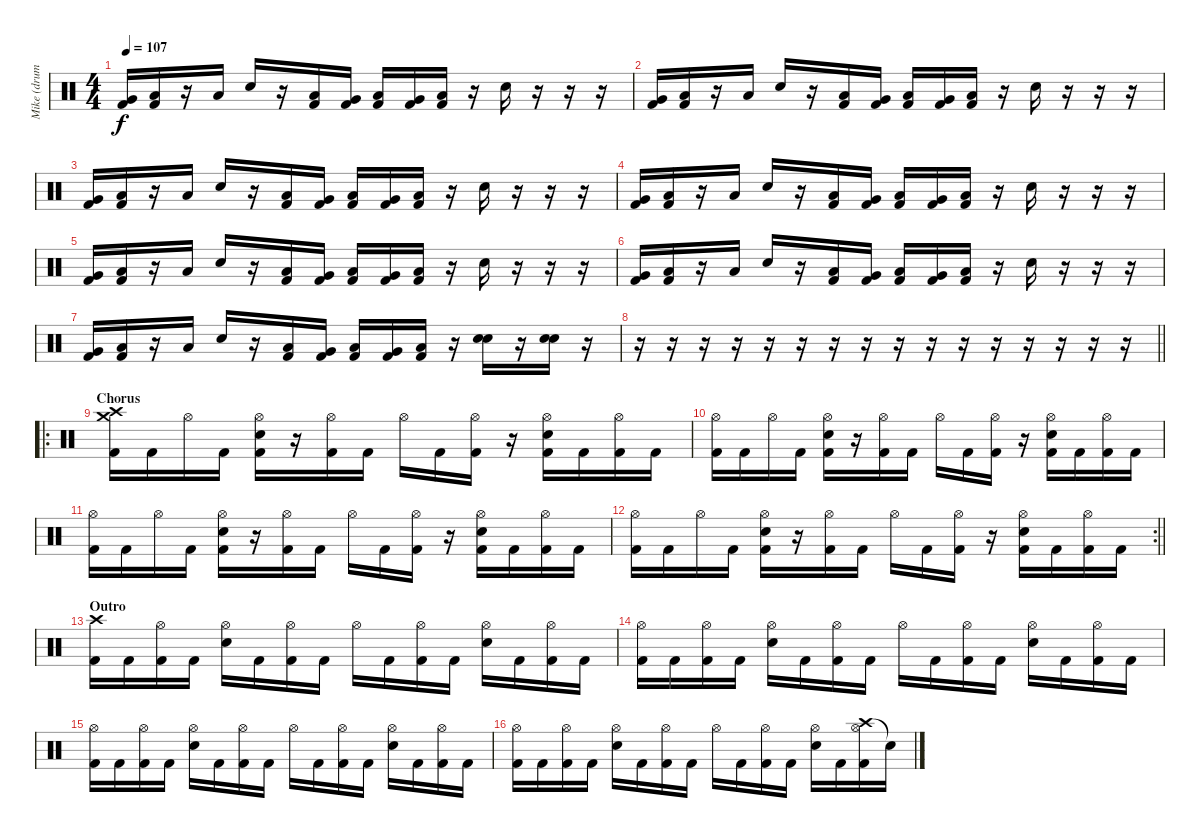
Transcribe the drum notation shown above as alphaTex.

\track ("Mike (drums)" "Mike (drum") {instrument percussion}
\staff {score}
\articulation defaults
\ts (4 4)
\tempo 107
\clef neutral
\ks c
("Very Low Tom (hit)" "Kick (hit) 2").16{dy f} ("Low Floor Tom (hit)" "Kick (hit) 2").16 r.16 "Low Floor Tom (hit)".16 "Electric Snare (hit)".16 r.16 ("Low Floor Tom (hit)" "Kick (hit) 2").16 ("Very Low Tom (hit)" "Kick (hit) 2").16 ("Low Floor Tom (hit)" "Kick (hit) 2").16 ("Very Low Tom (hit)" "Kick (hit) 2").16 ("Low Floor Tom (hit)" "Kick (hit) 2").16 r.16 "Electric Snare (hit)".16 r.16 r.16 r.16 |
("Very Low Tom (hit)" "Kick (hit) 2").16 ("Low Floor Tom (hit)" "Kick (hit) 2").16 r.16 "Low Floor Tom (hit)".16 "Electric Snare (hit)".16 r.16 ("Low Floor Tom (hit)" "Kick (hit) 2").16 ("Very Low Tom (hit)" "Kick (hit) 2").16 ("Low Floor Tom (hit)" "Kick (hit) 2").16 ("Very Low Tom (hit)" "Kick (hit) 2").16 ("Low Floor Tom (hit)" "Kick (hit) 2").16 r.16 "Electric Snare (hit)".16 r.16 r.16 r.16 |
("Very Low Tom (hit)" "Kick (hit) 2").16 ("Low Floor Tom (hit)" "Kick (hit) 2").16 r.16 "Low Floor Tom (hit)".16 "Electric Snare (hit)".16 r.16 ("Low Floor Tom (hit)" "Kick (hit) 2").16 ("Very Low Tom (hit)" "Kick (hit) 2").16 ("Low Floor Tom (hit)" "Kick (hit) 2").16 ("Very Low Tom (hit)" "Kick (hit) 2").16 ("Low Floor Tom (hit)" "Kick (hit) 2").16 r.16 "Electric Snare (hit)".16 r.16 r.16 r.16 |
("Very Low Tom (hit)" "Kick (hit) 2").16 ("Low Floor Tom (hit)" "Kick (hit) 2").16 r.16 "Low Floor Tom (hit)".16 "Electric Snare (hit)".16 r.16 ("Low Floor Tom (hit)" "Kick (hit) 2").16 ("Very Low Tom (hit)" "Kick (hit) 2").16 ("Low Floor Tom (hit)" "Kick (hit) 2").16 ("Very Low Tom (hit)" "Kick (hit) 2").16 ("Low Floor Tom (hit)" "Kick (hit) 2").16 r.16 "Electric Snare (hit)".16 r.16 r.16 r.16 |
("Very Low Tom (hit)" "Kick (hit) 2").16 ("Low Floor Tom (hit)" "Kick (hit) 2").16 r.16 "Low Floor Tom (hit)".16 "Electric Snare (hit)".16 r.16 ("Low Floor Tom (hit)" "Kick (hit) 2").16 ("Very Low Tom (hit)" "Kick (hit) 2").16 ("Low Floor Tom (hit)" "Kick (hit) 2").16 ("Very Low Tom (hit)" "Kick (hit) 2").16 ("Low Floor Tom (hit)" "Kick (hit) 2").16 r.16 "Electric Snare (hit)".16 r.16 r.16 r.16 |
("Very Low Tom (hit)" "Kick (hit) 2").16 ("Low Floor Tom (hit)" "Kick (hit) 2").16 r.16 "Low Floor Tom (hit)".16 "Electric Snare (hit)".16 r.16 ("Low Floor Tom (hit)" "Kick (hit) 2").16 ("Very Low Tom (hit)" "Kick (hit) 2").16 ("Low Floor Tom (hit)" "Kick (hit) 2").16 ("Very Low Tom (hit)" "Kick (hit) 2").16 ("Low Floor Tom (hit)" "Kick (hit) 2").16 r.16 "Electric Snare (hit)".16 r.16 r.16 r.16 |
("Very Low Tom (hit)" "Kick (hit) 2").16 ("Low Floor Tom (hit)" "Kick (hit) 2").16 r.16 "Low Floor Tom (hit)".16 "Electric Snare (hit)".16 r.16 ("Low Floor Tom (hit)" "Kick (hit) 2").16 ("Very Low Tom (hit)" "Kick (hit) 2").16 ("Low Floor Tom (hit)" "Kick (hit) 2").16 ("Very Low Tom (hit)" "Kick (hit) 2").16 ("Low Floor Tom (hit)" "Kick (hit) 2").16 r.16 ("Electric Snare (hit)" "Electric Snare (hit)").16 r.16 ("Electric Snare (hit)" "Electric Snare (hit)").16 r.16 |
\barLineRight lightlight
r.16 r.16 r.16 r.16 r.16 r.16 r.16 r.16 r.16 r.16 r.16 r.16 r.16 r.16 r.16 r.16 |
\ro
\section ("" "Chorus ")
("Crash high (hit)" "Crash medium (hit)" "Kick (hit) 2").16 "Kick (hit) 2".16 "Hi-Hat (open)".16 "Kick (hit) 2".16 ("Hi-Hat (open)" "Electric Snare (hit)" "Kick (hit) 2").16 r.16 ("Hi-Hat (open)" "Kick (hit) 2").16 "Kick (hit) 2".16 "Hi-Hat (open)".16 "Kick (hit) 2".16 ("Hi-Hat (open)" "Kick (hit) 2").16 r.16 ("Hi-Hat (open)" "Electric Snare (hit)" "Kick (hit) 2").16 "Kick (hit) 2".16 ("Hi-Hat (open)" "Kick (hit) 2").16 "Kick (hit) 2".16 |
("Hi-Hat (open)" "Kick (hit) 2").16 "Kick (hit) 2".16 "Hi-Hat (open)".16 "Kick (hit) 2".16 ("Hi-Hat (open)" "Electric Snare (hit)" "Kick (hit) 2").16 r.16 ("Hi-Hat (open)" "Kick (hit) 2").16 "Kick (hit) 2".16 "Hi-Hat (open)".16 "Kick (hit) 2".16 ("Hi-Hat (open)" "Kick (hit) 2").16 r.16 ("Hi-Hat (open)" "Electric Snare (hit)" "Kick (hit) 2").16 "Kick (hit) 2".16 ("Hi-Hat (open)" "Kick (hit) 2").16 "Kick (hit) 2".16 |
("Hi-Hat (open)" "Kick (hit) 2").16 "Kick (hit) 2".16 "Hi-Hat (open)".16 "Kick (hit) 2".16 ("Hi-Hat (open)" "Electric Snare (hit)" "Kick (hit) 2").16 r.16 ("Hi-Hat (open)" "Kick (hit) 2").16 "Kick (hit) 2".16 "Hi-Hat (open)".16 "Kick (hit) 2".16 ("Hi-Hat (open)" "Kick (hit) 2").16 r.16 ("Hi-Hat (open)" "Electric Snare (hit)" "Kick (hit) 2").16 "Kick (hit) 2".16 ("Hi-Hat (open)" "Kick (hit) 2").16 "Kick (hit) 2".16 |
\rc 2
\barLineRight lightlight
("Hi-Hat (open)" "Kick (hit) 2").16 "Kick (hit) 2".16 "Hi-Hat (open)".16 "Kick (hit) 2".16 ("Hi-Hat (open)" "Electric Snare (hit)" "Kick (hit) 2").16 r.16 ("Hi-Hat (open)" "Kick (hit) 2").16 "Kick (hit) 2".16 "Hi-Hat (open)".16 "Kick (hit) 2".16 ("Hi-Hat (open)" "Kick (hit) 2").16 r.16 ("Hi-Hat (open)" "Electric Snare (hit)" "Kick (hit) 2").16 "Kick (hit) 2".16 ("Hi-Hat (open)" "Kick (hit) 2").16 "Kick (hit) 2".16 |
\section ("" "Outro")
("Crash high (hit)" "Kick (hit) 2").16 "Kick (hit) 2".16 ("Hi-Hat (open)" "Kick (hit) 2").16 "Kick (hit) 2".16 ("Hi-Hat (open)" "Electric Snare (hit)").16 "Kick (hit) 2".16 ("Hi-Hat (open)" "Kick (hit) 2").16 "Kick (hit) 2".16 "Hi-Hat (open)".16 "Kick (hit) 2".16 ("Hi-Hat (open)" "Kick (hit) 2").16 "Kick (hit) 2".16 ("Hi-Hat (open)" "Electric Snare (hit)").16 "Kick (hit) 2".16 ("Hi-Hat (open)" "Kick (hit) 2").16 "Kick (hit) 2".16 |
("Hi-Hat (open)" "Kick (hit) 2").16 "Kick (hit) 2".16 ("Hi-Hat (open)" "Kick (hit) 2").16 "Kick (hit) 2".16 ("Hi-Hat (open)" "Electric Snare (hit)").16 "Kick (hit) 2".16 ("Hi-Hat (open)" "Kick (hit) 2").16 "Kick (hit) 2".16 "Hi-Hat (open)".16 "Kick (hit) 2".16 ("Hi-Hat (open)" "Kick (hit) 2").16 "Kick (hit) 2".16 ("Hi-Hat (open)" "Electric Snare (hit)").16 "Kick (hit) 2".16 ("Hi-Hat (open)" "Kick (hit) 2").16 "Kick (hit) 2".16 |
("Hi-Hat (open)" "Kick (hit) 2").16 "Kick (hit) 2".16 ("Hi-Hat (open)" "Kick (hit) 2").16 "Kick (hit) 2".16 ("Hi-Hat (open)" "Electric Snare (hit)").16 "Kick (hit) 2".16 ("Hi-Hat (open)" "Kick (hit) 2").16 "Kick (hit) 2".16 "Hi-Hat (open)".16 "Kick (hit) 2".16 ("Hi-Hat (open)" "Kick (hit) 2").16 "Kick (hit) 2".16 ("Hi-Hat (open)" "Electric Snare (hit)").16 "Kick (hit) 2".16 ("Hi-Hat (open)" "Kick (hit) 2").16 "Kick (hit) 2".16 |
("Hi-Hat (open)" "Kick (hit) 2").16 "Kick (hit) 2".16 ("Hi-Hat (open)" "Kick (hit) 2").16 "Kick (hit) 2".16 ("Hi-Hat (open)" "Electric Snare (hit)").16 "Kick (hit) 2".16 ("Hi-Hat (open)" "Kick (hit) 2").16 "Kick (hit) 2".16 "Hi-Hat (open)".16 "Kick (hit) 2".16 ("Hi-Hat (open)" "Kick (hit) 2").16 "Kick (hit) 2".16 ("Hi-Hat (open)" "Electric Snare (hit)").16 "Kick (hit) 2".16 ("Crash high (hit)" "Hi-Hat (open)" "Kick (hit) 2").16 "Snare (hit)"{t}.16
